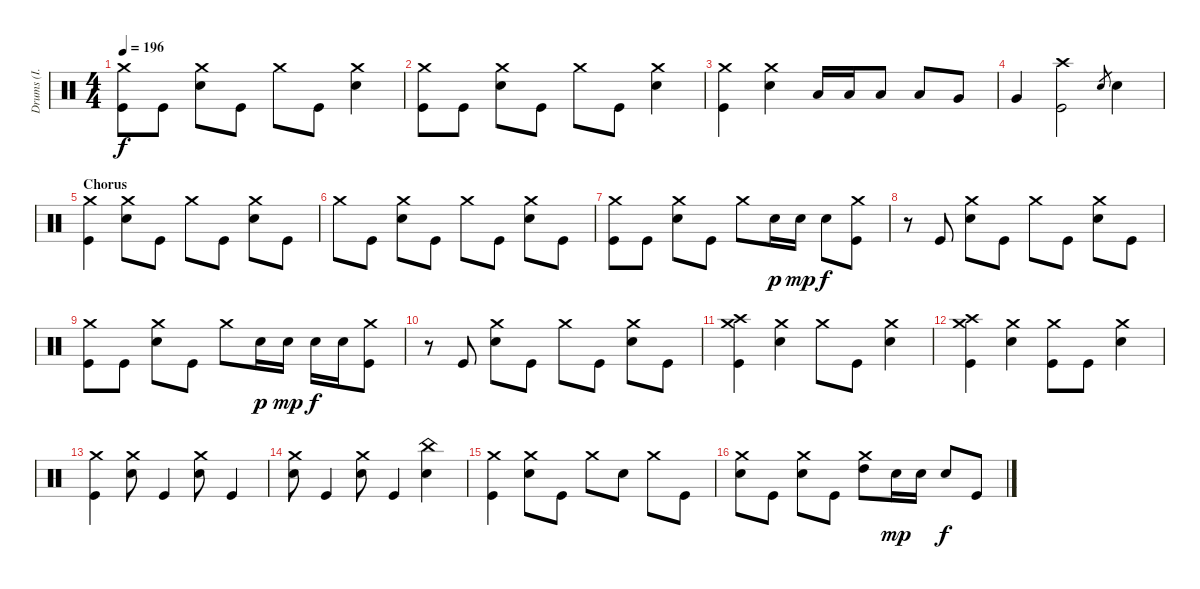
\track ("Drums (I. Paice)" "Drums (I. ") {instrument percussion}
\staff {score}
\articulation defaults
\ts (4 4)
\tempo 196
\clef neutral
\ks c
("Crash medium (hit)" "Kick (hit)").8{dy f} "Kick (hit)".8 ("Crash medium (hit)" "Electric Snare (hit)").8 "Kick (hit)".8 "Crash medium (hit)".8 "Kick (hit)".8 ("Crash medium (hit)" "Electric Snare (hit)").4 |
("Crash medium (hit)" "Kick (hit)").8 "Kick (hit)".8 ("Crash medium (hit)" "Electric Snare (hit)").8 "Kick (hit)".8 "Crash medium (hit)".8 "Kick (hit)".8 ("Crash medium (hit)" "Electric Snare (hit)").4 |
("Crash medium (hit)" "Kick (hit)").4 ("Crash medium (hit)" "Electric Snare (hit)").4 "Low Tom (hit)".16 "Low Tom (hit)".16 "Low Tom (hit)".8 "Low Tom (hit)".8 "Very Low Tom (hit)".8 |
"Very Low Tom (hit)".4 ("Crash high (hit)" "Kick (hit)").2 "Electric Snare (hit)".8{gr} "Electric Snare (hit)".4 |
\section ("" "Chorus")
("Crash medium (hit)" "Kick (hit)").4 ("Crash medium (hit)" "Electric Snare (hit)").8 "Kick (hit)".8 "Crash medium (hit)".8 "Kick (hit)".8 ("Crash medium (hit)" "Electric Snare (hit)").8 "Kick (hit)".8 |
"Crash medium (hit)".8 "Kick (hit)".8 ("Crash medium (hit)" "Electric Snare (hit)").8 "Kick (hit)".8 "Crash medium (hit)".8 "Kick (hit)".8 ("Crash medium (hit)" "Electric Snare (hit)").8 "Kick (hit)".8 |
("Crash medium (hit)" "Kick (hit)").8 "Kick (hit)".8 ("Crash medium (hit)" "Electric Snare (hit)").8 "Kick (hit)".8 "Crash medium (hit)".8 "Electric Snare (hit)".16{dy p} "Electric Snare (hit)".16{dy mp} "Electric Snare (hit)".8{dy f} ("Crash medium (hit)" "Kick (hit)").8 |
r.8 "Kick (hit)".8 ("Crash medium (hit)" "Electric Snare (hit)").8 "Kick (hit)".8 "Crash medium (hit)".8 "Kick (hit)".8 ("Crash medium (hit)" "Electric Snare (hit)").8 "Kick (hit)".8 |
("Crash medium (hit)" "Kick (hit)").8 "Kick (hit)".8 ("Crash medium (hit)" "Electric Snare (hit)").8 "Kick (hit)".8 "Crash medium (hit)".8 "Electric Snare (hit)".16{dy p} "Electric Snare (hit)".16{dy mp} "Electric Snare (hit)".16{dy f} "Electric Snare (hit)".16 ("Crash medium (hit)" "Kick (hit)").8 |
r.8 "Kick (hit)".8 ("Crash medium (hit)" "Electric Snare (hit)").8 "Kick (hit)".8 "Crash medium (hit)".8 "Kick (hit)".8 ("Crash medium (hit)" "Electric Snare (hit)").8 "Kick (hit)".8 |
("Crash medium (hit)" "Crash high (hit)" "Kick (hit)").4 ("Crash medium (hit)" "Electric Snare (hit)").4 "Crash medium (hit)".8 "Kick (hit)".8 ("Crash medium (hit)" "Electric Snare (hit)").4 |
("Crash medium (hit)" "Crash high (hit)" "Kick (hit)").4 ("Crash medium (hit)" "Electric Snare (hit)").4 ("Crash medium (hit)" "Kick (hit)").8 "Kick (hit)".8 ("Crash medium (hit)" "Electric Snare (hit)").4 |
("Crash medium (hit)" "Kick (hit)").4 ("Crash medium (hit)" "Electric Snare (hit)").8 "Kick (hit)".4 ("Crash medium (hit)" "Electric Snare (hit)").8 "Kick (hit)".4 |
("Crash medium (hit)" "Electric Snare (hit)").8 "Kick (hit)".4 ("Crash medium (hit)" "Electric Snare (hit)").8 "Kick (hit)".4 ("China (hit)" "Electric Snare (hit)").4 |
("Crash medium (hit)" "Kick (hit)").4 ("Crash medium (hit)" "Electric Snare (hit)").8 "Kick (hit)".8 "Crash medium (hit)".8 "Electric Snare (hit)".8 "Crash medium (hit)".8 "Kick (hit)".8 |
("Crash medium (hit)" "Electric Snare (hit)").8 "Kick (hit)".8 ("Crash medium (hit)" "Electric Snare (hit)").8 "Kick (hit)".8 ("Crash medium (hit)" "High Tom (hit)").8 "Electric Snare (hit)".16{dy mp} "Electric Snare (hit)".16 "Electric Snare (hit)".8{dy f} "Kick (hit)".8
